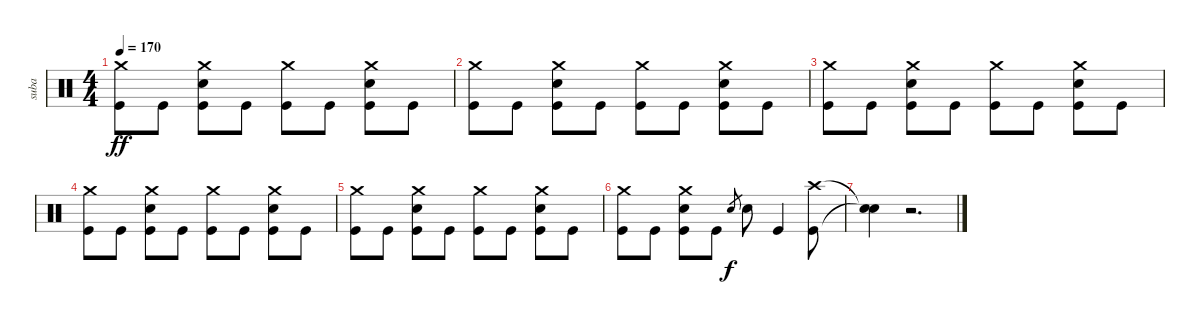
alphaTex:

\track ("suba" "suba") {instrument percussion}
\staff {score}
\articulation defaults
\ts (4 4)
\tempo 170
\clef neutral
\ks c
("Crash medium (hit)" "Kick (hit)").8{dy ff} "Kick (hit)".8 ("Crash medium (hit)" "Electric Snare (hit)" "Kick (hit)").8 "Kick (hit)".8 ("Crash medium (hit)" "Kick (hit)").8 "Kick (hit)".8 ("Crash medium (hit)" "Electric Snare (hit)" "Kick (hit)").8 "Kick (hit)".8 |
("Crash medium (hit)" "Kick (hit)").8 "Kick (hit)".8 ("Crash medium (hit)" "Electric Snare (hit)" "Kick (hit)").8 "Kick (hit)".8 ("Crash medium (hit)" "Kick (hit)").8 "Kick (hit)".8 ("Crash medium (hit)" "Electric Snare (hit)" "Kick (hit)").8 "Kick (hit)".8 |
("Crash medium (hit)" "Kick (hit)").8 "Kick (hit)".8 ("Crash medium (hit)" "Electric Snare (hit)" "Kick (hit)").8 "Kick (hit)".8 ("Crash medium (hit)" "Kick (hit)").8 "Kick (hit)".8 ("Crash medium (hit)" "Electric Snare (hit)" "Kick (hit)").8 "Kick (hit)".8 |
("Crash medium (hit)" "Kick (hit)").8 "Kick (hit)".8 ("Crash medium (hit)" "Electric Snare (hit)" "Kick (hit)").8 "Kick (hit)".8 ("Crash medium (hit)" "Kick (hit)").8 "Kick (hit)".8 ("Crash medium (hit)" "Electric Snare (hit)" "Kick (hit)").8 "Kick (hit)".8 |
("Crash medium (hit)" "Kick (hit)").8 "Kick (hit)".8 ("Crash medium (hit)" "Electric Snare (hit)" "Kick (hit)").8 "Kick (hit)".8 ("Crash medium (hit)" "Kick (hit)").8 "Kick (hit)".8 ("Crash medium (hit)" "Electric Snare (hit)" "Kick (hit)").8 "Kick (hit)".8 |
("Crash medium (hit)" "Kick (hit)").8 "Kick (hit)".8 ("Crash medium (hit)" "Electric Snare (hit)" "Kick (hit)").8 "Kick (hit)".8 "Electric Snare (hit)".8{gr dy f} "Electric Snare (hit)".8 "Kick (hit)".4 ("Crash high (hit)" "Kick (hit)").8 |
("Snare (hit)"{t} "Snare (hit)"{t}).4 r.2{d}
